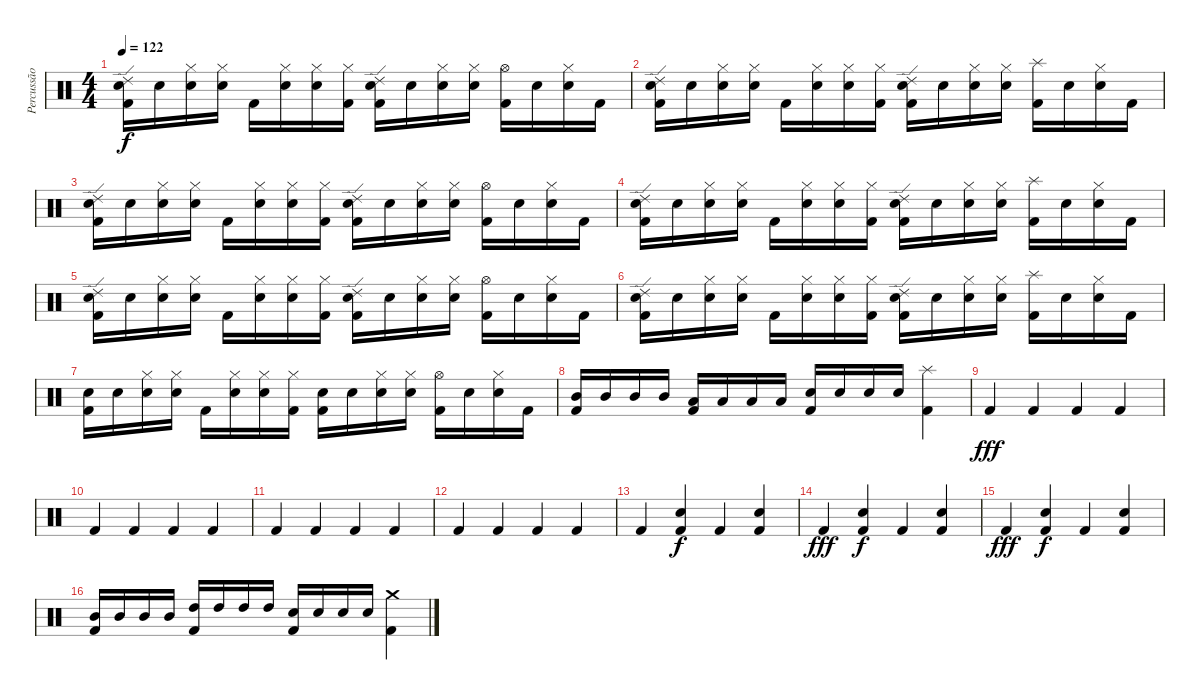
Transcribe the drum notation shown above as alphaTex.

\track ("Percussão" "Percussão") {instrument percussion}
\staff {score}
\articulation defaults
\ts (4 4)
\tempo 122
\clef neutral
\ks c
("Kick (hit) 2" "Electric Snare (hit)" "Ride (edge) 2").16{dy f} "Snare (hit)".16 ("Snare (hit)" "Hi-Hat (closed)").16 ("Snare (hit)" "Hi-Hat (closed)").16 "Kick (hit) 2".16 ("Snare (hit)" "Hi-Hat (closed)").16 ("Snare (hit)" "Hi-Hat (closed)").16 ("Kick (hit) 2" "Hi-Hat (closed)").16 ("Kick (hit) 2" "Electric Snare (hit)" "Ride (edge) 2").16 "Snare (hit)".16 ("Snare (hit)" "Hi-Hat (closed)").16 ("Snare (hit)" "Hi-Hat (closed)").16 ("Kick (hit) 2" "Hi-Hat (open)").16 "Snare (hit)".16 ("Snare (hit)" "Hi-Hat (closed)").16 "Kick (hit) 2".16 |
("Kick (hit) 2" "Electric Snare (hit)" "Ride (edge) 2").16 "Snare (hit)".16 ("Snare (hit)" "Hi-Hat (closed)").16 ("Snare (hit)" "Hi-Hat (closed)").16 "Kick (hit) 2".16 ("Snare (hit)" "Hi-Hat (closed)").16 ("Snare (hit)" "Hi-Hat (closed)").16 ("Kick (hit) 2" "Hi-Hat (closed)").16 ("Kick (hit) 2" "Electric Snare (hit)" "Ride (edge) 2").16 "Snare (hit)".16 ("Snare (hit)" "Hi-Hat (closed)").16 ("Snare (hit)" "Hi-Hat (closed)").16 ("Kick (hit) 2" "Splash (hit)").16 "Snare (hit)".16 ("Snare (hit)" "Hi-Hat (closed)").16 "Kick (hit) 2".16 |
("Kick (hit) 2" "Electric Snare (hit)" "Ride (edge) 2").16 "Snare (hit)".16 ("Snare (hit)" "Hi-Hat (closed)").16 ("Snare (hit)" "Hi-Hat (closed)").16 "Kick (hit) 2".16 ("Snare (hit)" "Hi-Hat (closed)").16 ("Snare (hit)" "Hi-Hat (closed)").16 ("Kick (hit) 2" "Hi-Hat (closed)").16 ("Kick (hit) 2" "Electric Snare (hit)" "Ride (edge) 2").16 "Snare (hit)".16 ("Snare (hit)" "Hi-Hat (closed)").16 ("Snare (hit)" "Hi-Hat (closed)").16 ("Kick (hit) 2" "Hi-Hat (open)").16 "Snare (hit)".16 ("Snare (hit)" "Hi-Hat (closed)").16 "Kick (hit) 2".16 |
("Kick (hit) 2" "Electric Snare (hit)" "Ride (edge) 2").16 "Snare (hit)".16 ("Snare (hit)" "Hi-Hat (closed)").16 ("Snare (hit)" "Hi-Hat (closed)").16 "Kick (hit) 2".16 ("Snare (hit)" "Hi-Hat (closed)").16 ("Snare (hit)" "Hi-Hat (closed)").16 ("Kick (hit) 2" "Hi-Hat (closed)").16 ("Kick (hit) 2" "Electric Snare (hit)" "Ride (edge) 2").16 "Snare (hit)".16 ("Snare (hit)" "Hi-Hat (closed)").16 ("Snare (hit)" "Hi-Hat (closed)").16 ("Kick (hit) 2" "Splash (hit)").16 "Snare (hit)".16 ("Snare (hit)" "Hi-Hat (closed)").16 "Kick (hit) 2".16 |
("Kick (hit) 2" "Electric Snare (hit)" "Ride (edge) 2").16 "Snare (hit)".16 ("Snare (hit)" "Hi-Hat (closed)").16 ("Snare (hit)" "Hi-Hat (closed)").16 "Kick (hit) 2".16 ("Snare (hit)" "Hi-Hat (closed)").16 ("Snare (hit)" "Hi-Hat (closed)").16 ("Kick (hit) 2" "Hi-Hat (closed)").16 ("Kick (hit) 2" "Electric Snare (hit)" "Ride (edge) 2").16 "Snare (hit)".16 ("Snare (hit)" "Hi-Hat (closed)").16 ("Snare (hit)" "Hi-Hat (closed)").16 ("Kick (hit) 2" "Hi-Hat (open)").16 "Snare (hit)".16 ("Snare (hit)" "Hi-Hat (closed)").16 "Kick (hit) 2".16 |
("Kick (hit) 2" "Electric Snare (hit)" "Ride (edge) 2").16 "Snare (hit)".16 ("Snare (hit)" "Hi-Hat (closed)").16 ("Snare (hit)" "Hi-Hat (closed)").16 "Kick (hit) 2".16 ("Snare (hit)" "Hi-Hat (closed)").16 ("Snare (hit)" "Hi-Hat (closed)").16 ("Kick (hit) 2" "Hi-Hat (closed)").16 ("Kick (hit) 2" "Electric Snare (hit)" "Ride (edge) 2").16 "Snare (hit)".16 ("Snare (hit)" "Hi-Hat (closed)").16 ("Snare (hit)" "Hi-Hat (closed)").16 ("Kick (hit) 2" "Splash (hit)").16 "Snare (hit)".16 ("Snare (hit)" "Hi-Hat (closed)").16 "Kick (hit) 2".16 |
("Kick (hit) 2" "Electric Snare (hit)").16 "Snare (hit)".16 ("Snare (hit)" "Hi-Hat (closed)").16 ("Snare (hit)" "Hi-Hat (closed)").16 "Kick (hit) 2".16 ("Snare (hit)" "Hi-Hat (closed)").16 ("Snare (hit)" "Hi-Hat (closed)").16 ("Kick (hit) 2" "Hi-Hat (closed)").16 ("Kick (hit) 2" "Electric Snare (hit)").16 "Snare (hit)".16 ("Snare (hit)" "Hi-Hat (closed)").16 ("Snare (hit)" "Hi-Hat (closed)").16 ("Kick (hit) 2" "Hi-Hat (open)").16 "Snare (hit)".16 ("Snare (hit)" "Hi-Hat (closed)").16 "Kick (hit) 2".16 |
("Mid Tom (hit)" "Kick (hit) 2").16 "Mid Tom (hit)".16 "Mid Tom (hit)".16 "Mid Tom (hit)".16 ("Low Tom (hit)" "Kick (hit) 2").16 "Low Tom (hit)".16 "Low Tom (hit)".16 "Low Tom (hit)".16 ("Electric Snare (hit)" "Kick (hit) 2").16 "Electric Snare (hit)".16 "Electric Snare (hit)".16 "Electric Snare (hit)".16 ("Kick (hit) 2" "Splash (hit)").4 |
"Kick (hit) 2".4{dy fff} "Kick (hit) 2".4 "Kick (hit) 2".4 "Kick (hit) 2".4 |
"Kick (hit) 2".4 "Kick (hit) 2".4 "Kick (hit) 2".4 "Kick (hit) 2".4 |
"Kick (hit) 2".4 "Kick (hit) 2".4 "Kick (hit) 2".4 "Kick (hit) 2".4 |
"Kick (hit) 2".4 "Kick (hit) 2".4 "Kick (hit) 2".4 "Kick (hit) 2".4 |
"Kick (hit) 2".4 ("Kick (hit) 2" "Electric Snare (hit)").4{dy f} "Kick (hit) 2".4 ("Kick (hit) 2" "Electric Snare (hit)").4 |
"Kick (hit) 2".4{dy fff} ("Kick (hit) 2" "Electric Snare (hit)").4{dy f} "Kick (hit) 2".4 ("Kick (hit) 2" "Electric Snare (hit)").4 |
"Kick (hit) 2".4{dy fff} ("Kick (hit) 2" "Electric Snare (hit)").4{dy f} "Kick (hit) 2".4 ("Kick (hit) 2" "Electric Snare (hit)").4 |
("Mid Tom (hit)" "Kick (hit) 2").16 "Mid Tom (hit)".16 "Mid Tom (hit)".16 "Mid Tom (hit)".16 ("High Tom (hit)" "Kick (hit) 2").16 "High Tom (hit)".16 "High Tom (hit)".16 "High Tom (hit)".16 ("Electric Snare (hit)" "Kick (hit) 2").16 "Electric Snare (hit)".16 "Electric Snare (hit)".16 "Electric Snare (hit)".16 ("Crash medium (hit)" "Kick (hit) 2").4
